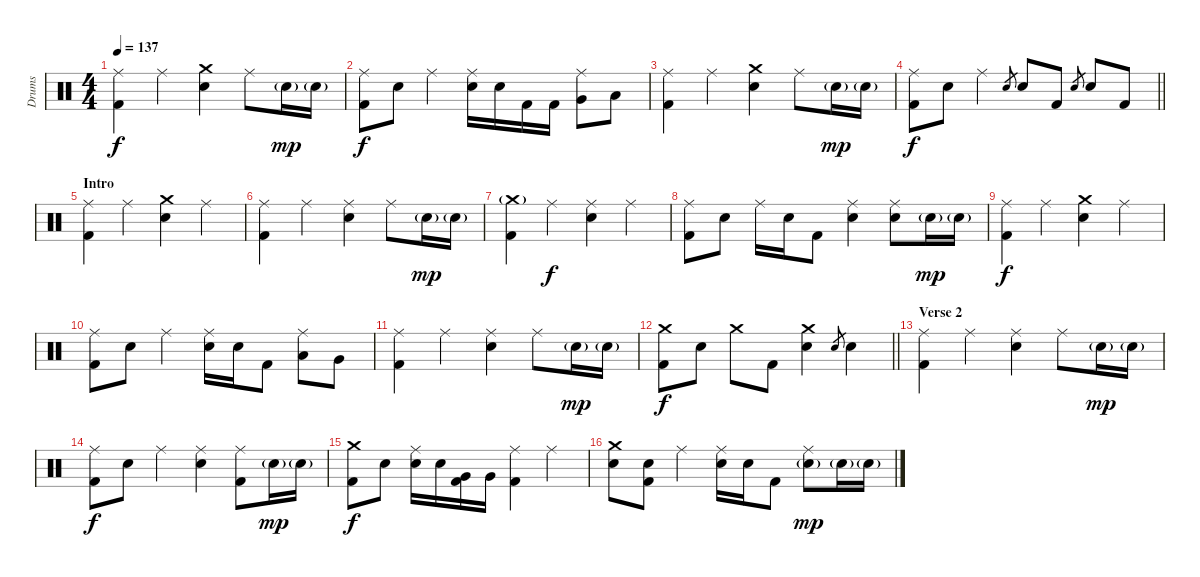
\track ("Drums" "Drums") {instrument percussion}
\staff {score}
\articulation defaults
\ts (4 4)
\tempo 137
\clef neutral
\ks c
("Ride (middle)" "Kick (hit) 2").4{dy f} "Ride (middle)".4 ("Crash medium (hit)" "Electric Snare (hit)").4 "Ride (middle)".8 "Electric Snare (hit)"{g}.16{dy mp} "Electric Snare (hit)"{g}.16 |
("Ride (middle)" "Kick (hit) 2").8{dy f} "Electric Snare (hit)".8 "Ride (middle)".4 ("Ride (middle)" "Electric Snare (hit)").16 "Electric Snare (hit)".16 "Kick (hit) 2".16 "Kick (hit) 2".16 ("Ride (middle)" "Very Low Tom (hit)").8 "Low Floor Tom (hit)".8 |
("Ride (middle)" "Kick (hit) 2").4 "Ride (middle)".4 ("Crash medium (hit)" "Electric Snare (hit)").4 "Ride (middle)".8 "Electric Snare (hit)"{g}.16{dy mp} "Electric Snare (hit)"{g}.16 |
\barLineRight lightlight
("Ride (middle)" "Kick (hit) 2").8{dy f} "Electric Snare (hit)".8 "Ride (middle)".4 "Electric Snare (hit)".8{gr} "Electric Snare (hit)".8 "Kick (hit) 2".8 "Electric Snare (hit)".8{gr} "Electric Snare (hit)".8 "Kick (hit) 2".8 |
\section ("" "Intro")
("Ride (middle)" "Kick (hit) 2").4 "Ride (middle)".4 ("Crash medium (hit)" "Electric Snare (hit)").4 "Ride (middle)".4 |
("Ride (middle)" "Kick (hit) 2").4 "Ride (middle)".4 ("Ride (middle)" "Electric Snare (hit)").4 "Ride (middle)".8 "Electric Snare (hit)"{g}.16{dy mp} "Electric Snare (hit)"{g}.16 |
("Crash medium (hit)"{g} "Kick (hit) 2").4 "Ride (middle)".4{dy f} ("Ride (middle)" "Electric Snare (hit)").4 "Ride (middle)".4 |
("Ride (middle)" "Kick (hit) 2").8 "Electric Snare (hit)".8 "Ride (middle)".16 "Electric Snare (hit)".16 "Kick (hit) 2".8 ("Ride (middle)" "Electric Snare (hit)").4 ("Ride (middle)" "Electric Snare (hit)").8 "Electric Snare (hit)"{g}.16{dy mp} "Electric Snare (hit)"{g}.16 |
("Ride (middle)" "Kick (hit) 2").4{dy f} "Ride (middle)".4 ("Crash medium (hit)" "Electric Snare (hit)").4 "Ride (middle)".4 |
("Ride (middle)" "Kick (hit) 2").8 "Electric Snare (hit)".8 "Ride (middle)".4 ("Ride (middle)" "Electric Snare (hit)").16 "Electric Snare (hit)".16 "Kick (hit) 2".8 ("Ride (middle)" "Low Tom (hit)").8 "Very Low Tom (hit)".8 |
("Ride (middle)" "Kick (hit) 2").4 "Ride (middle)".4 ("Ride (middle)" "Electric Snare (hit)").4 "Ride (middle)".8 "Electric Snare (hit)"{g}.16{dy mp} "Electric Snare (hit)"{g}.16 |
\barLineRight lightlight
("Crash medium (hit)" "Kick (hit) 2").8{dy f} "Electric Snare (hit)".8 "Crash medium (hit)".8 "Kick (hit) 2".8 ("Crash medium (hit)" "Electric Snare (hit)").4 "Electric Snare (hit)".8{gr} "Electric Snare (hit)".4 |
\section ("" "Verse 2")
("Ride (middle)" "Kick (hit) 2").4 "Ride (middle)".4 ("Ride (middle)" "Electric Snare (hit)").4 "Ride (middle)".8 "Electric Snare (hit)"{g}.16{dy mp} "Electric Snare (hit)"{g}.16 |
("Ride (middle)" "Kick (hit) 2").8{dy f} "Electric Snare (hit)".8 "Ride (middle)".4 ("Ride (middle)" "Electric Snare (hit)").4 ("Ride (middle)" "Kick (hit) 2").8 "Electric Snare (hit)"{g}.16{dy mp} "Electric Snare (hit)"{g}.16 |
("Crash medium (hit)" "Kick (hit) 2").8{dy f} "Electric Snare (hit)".8 ("Ride (middle)" "Electric Snare (hit)").16 "Electric Snare (hit)".16 ("Very Low Tom (hit)" "Kick (hit) 2").16 "Very Low Tom (hit)".16 ("Ride (middle)" "Kick (hit) 2").4 "Ride (middle)".4 |
("Crash medium (hit)" "Electric Snare (hit)").8 ("Electric Snare (hit)" "Kick (hit) 2").8 "Ride (middle)".4 ("Ride (middle)" "Electric Snare (hit)").16 "Electric Snare (hit)".16 "Kick (hit) 2".8 ("Ride (middle)" "Electric Snare (hit)"{g}).8{dy mp} "Electric Snare (hit)"{g}.16 "Electric Snare (hit)"{g}.16
